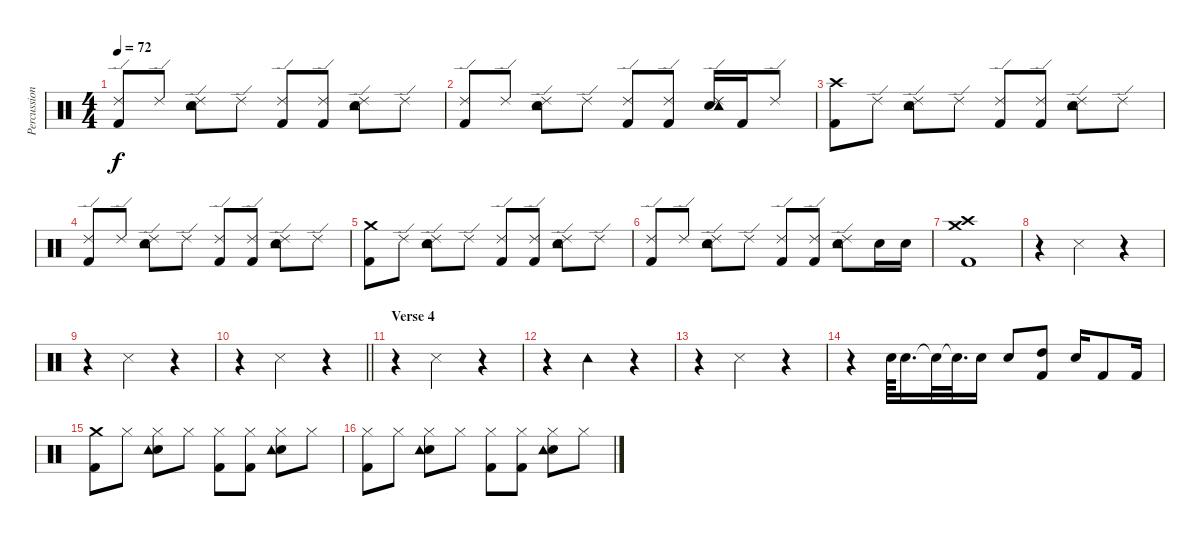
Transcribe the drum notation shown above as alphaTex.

\track ("Percussion" "Percussion") {instrument percussion}
\staff {score}
\articulation defaults
\ts (4 4)
\tempo 72
\clef neutral
\ks c
("Ride (edge) 2" "Kick (hit) 2").8{dy f} "Ride (edge) 2".8 ("Ride (edge) 2" "Snare (hit) 2" "Tambourine (hit)").8 "Ride (edge) 2".8 ("Ride (edge) 2" "Kick (hit) 2").8 ("Ride (edge) 2" "Kick (hit) 2").8 ("Ride (edge) 2" "Snare (hit) 2" "Tambourine (hit)").8 "Ride (edge) 2".8 |
("Ride (edge) 2" "Kick (hit) 2").8 "Ride (edge) 2".8 ("Ride (edge) 2" "Snare (hit) 2" "Tambourine (hit)").8 "Ride (edge) 2".8 ("Ride (edge) 2" "Kick (hit) 2").8 ("Ride (edge) 2" "Kick (hit) 2").8 ("Ride (edge) 2" "Snare (hit) 2" "Tambourine (hit)").16 "Kick (hit) 2".16 "Ride (edge) 2".8 |
("Crash high (hit)" "Kick (hit) 2").8 "Ride (edge) 2".8 ("Ride (edge) 2" "Snare (hit) 2" "Tambourine (hit)").8 "Ride (edge) 2".8 ("Ride (edge) 2" "Kick (hit) 2").8 ("Ride (edge) 2" "Kick (hit) 2").8 ("Ride (edge) 2" "Snare (hit) 2" "Tambourine (hit)").8 "Ride (edge) 2".8 |
("Ride (edge) 2" "Kick (hit) 2").8 "Ride (edge) 2".8 ("Ride (edge) 2" "Snare (hit) 2" "Tambourine (hit)").8 "Ride (edge) 2".8 ("Ride (edge) 2" "Kick (hit) 2").8 ("Ride (edge) 2" "Kick (hit) 2").8 ("Ride (edge) 2" "Snare (hit) 2" "Tambourine (hit)").8 "Ride (edge) 2".8 |
("Crash medium (hit)" "Kick (hit) 2").8 "Ride (edge) 2".8 ("Ride (edge) 2" "Snare (hit) 2" "Tambourine (hit)").8 "Ride (edge) 2".8 ("Ride (edge) 2" "Kick (hit) 2").8 ("Ride (edge) 2" "Kick (hit) 2").8 ("Ride (edge) 2" "Snare (hit) 2" "Tambourine (hit)").8 "Ride (edge) 2".8 |
("Ride (edge) 2" "Kick (hit) 2").8 "Ride (edge) 2".8 ("Ride (edge) 2" "Snare (hit) 2" "Tambourine (hit)").8 "Ride (edge) 2".8 ("Ride (edge) 2" "Kick (hit) 2").8 ("Ride (edge) 2" "Kick (hit) 2").8 ("Ride (edge) 2" "Snare (hit) 2" "Tambourine (hit)").8 "Snare (hit) 2".16 "Snare (hit) 2".16 |
("Crash high (hit)" "Crash medium (hit)" "Kick (hit) 2").1 |
r.4 "Snare (side stick) 3".2 r.4 |
r.4 "Snare (side stick) 3".2 r.4 |
\barLineRight lightlight
r.4 "Snare (side stick) 3".2 r.4 |
\section ("" "Verse 4")
r.4 "Snare (side stick) 3".2 r.4 |
r.4 "Tambourine (hit)".2 r.4 |
r.4 "Snare (side stick) 3".2 r.4 |
r.4 "Snare (hit) 2".64 "Snare (hit) 2".16{d} "Snare (hit)"{t}.32 "Snare (hit)"{t}.32{d} "Snare (hit) 2".16 "Snare (hit) 2".8 ("High Tom (hit)" "Kick (hit) 2").8 "Snare (hit) 2".16 "Kick (hit) 2".8 "Kick (hit) 2".16 |
("Crash medium (hit)" "Kick (hit) 2").8 "Hi-Hat (closed)".8 ("Hi-Hat (closed)" "Snare (hit) 2" "Tambourine (hit)").8 "Hi-Hat (closed)".8 ("Hi-Hat (closed)" "Kick (hit) 2").8 ("Hi-Hat (closed)" "Kick (hit) 2").8 ("Hi-Hat (closed)" "Snare (hit) 2" "Tambourine (hit)").8 "Hi-Hat (closed)".8 |
("Hi-Hat (closed)" "Kick (hit) 2").8 "Hi-Hat (closed)".8 ("Hi-Hat (closed)" "Snare (hit) 2" "Tambourine (hit)").8 "Hi-Hat (closed)".8 ("Hi-Hat (closed)" "Kick (hit) 2").8 ("Hi-Hat (closed)" "Kick (hit) 2").8 ("Hi-Hat (closed)" "Snare (hit) 2" "Tambourine (hit)").8 "Hi-Hat (closed)".8
